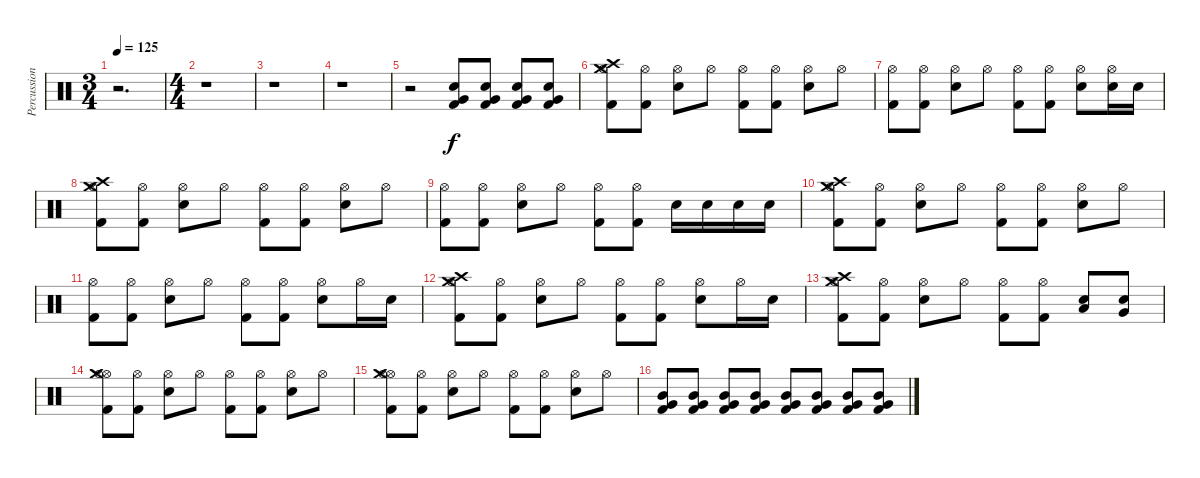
\track ("Percussions" "Percussion") {instrument percussion}
\staff {score}
\articulation defaults
\ts (3 4)
\tempo 125
\clef neutral
\ks c
r.2{d dy f} |
\ts (4 4)
r.1 |
r.1 |
r.1 |
r.2 ("Very Low Tom (hit)" "Electric Snare (hit)" "Kick (hit) 2").8 ("Very Low Tom (hit)" "Electric Snare (hit)" "Kick (hit) 2").8 ("Very Low Tom (hit)" "Electric Snare (hit)" "Kick (hit) 2").8 ("Very Low Tom (hit)" "Electric Snare (hit)" "Kick (hit) 2").8 |
("Hi-Hat (open)" "Crash high (hit)" "Crash medium (hit)" "Kick (hit) 2").8 ("Hi-Hat (open)" "Kick (hit) 2").8 ("Hi-Hat (open)" "Electric Snare (hit)").8 "Hi-Hat (open)".8 ("Hi-Hat (open)" "Kick (hit) 2").8 ("Hi-Hat (open)" "Kick (hit) 2").8 ("Hi-Hat (open)" "Electric Snare (hit)").8 "Hi-Hat (open)".8 |
("Hi-Hat (open)" "Kick (hit) 2").8 ("Hi-Hat (open)" "Kick (hit) 2").8 ("Hi-Hat (open)" "Electric Snare (hit)").8 "Hi-Hat (open)".8 ("Hi-Hat (open)" "Kick (hit) 2").8 ("Hi-Hat (open)" "Kick (hit) 2").8 ("Hi-Hat (open)" "Electric Snare (hit)").8 ("Hi-Hat (open)" "Electric Snare (hit)").16 "Electric Snare (hit)".16 |
("Hi-Hat (open)" "Crash high (hit)" "Crash medium (hit)" "Kick (hit) 2").8 ("Hi-Hat (open)" "Kick (hit) 2").8 ("Hi-Hat (open)" "Electric Snare (hit)").8 "Hi-Hat (open)".8 ("Hi-Hat (open)" "Kick (hit) 2").8 ("Hi-Hat (open)" "Kick (hit) 2").8 ("Hi-Hat (open)" "Electric Snare (hit)").8 "Hi-Hat (open)".8 |
("Hi-Hat (open)" "Kick (hit) 2").8 ("Hi-Hat (open)" "Kick (hit) 2").8 ("Hi-Hat (open)" "Electric Snare (hit)").8 "Hi-Hat (open)".8 ("Hi-Hat (open)" "Kick (hit) 2").8 ("Hi-Hat (open)" "Kick (hit) 2").8 "Electric Snare (hit)".16 "Electric Snare (hit)".16 "Electric Snare (hit)".16 "Electric Snare (hit)".16 |
("Hi-Hat (open)" "Crash high (hit)" "Crash medium (hit)" "Kick (hit) 2").8 ("Hi-Hat (open)" "Kick (hit) 2").8 ("Hi-Hat (open)" "Electric Snare (hit)").8 "Hi-Hat (open)".8 ("Hi-Hat (open)" "Kick (hit) 2").8 ("Hi-Hat (open)" "Kick (hit) 2").8 ("Hi-Hat (open)" "Electric Snare (hit)").8 "Hi-Hat (open)".8 |
("Hi-Hat (open)" "Kick (hit) 2").8 ("Hi-Hat (open)" "Kick (hit) 2").8 ("Hi-Hat (open)" "Electric Snare (hit)").8 "Hi-Hat (open)".8 ("Hi-Hat (open)" "Kick (hit) 2").8 ("Hi-Hat (open)" "Kick (hit) 2").8 ("Hi-Hat (open)" "Electric Snare (hit)").8 "Hi-Hat (open)".16 "Electric Snare (hit)".16 |
("Hi-Hat (open)" "Crash high (hit)" "Crash medium (hit)" "Kick (hit) 2").8 ("Hi-Hat (open)" "Kick (hit) 2").8 ("Hi-Hat (open)" "Electric Snare (hit)").8 "Hi-Hat (open)".8 ("Hi-Hat (open)" "Kick (hit) 2").8 ("Hi-Hat (open)" "Kick (hit) 2").8 ("Hi-Hat (open)" "Electric Snare (hit)").8 "Hi-Hat (open)".16 "Electric Snare (hit)".16 |
("Hi-Hat (open)" "Crash high (hit)" "Crash medium (hit)" "Kick (hit) 2").8 ("Hi-Hat (open)" "Kick (hit) 2").8 ("Hi-Hat (open)" "Electric Snare (hit)").8 "Hi-Hat (open)".8 ("Hi-Hat (open)" "Kick (hit) 2").8 ("Hi-Hat (open)" "Kick (hit) 2").8 ("Low Tom (hit)" "Electric Snare (hit)").8 ("Very Low Tom (hit)" "Electric Snare (hit)").8 |
("Hi-Hat (open)" "Hi-Hat (open)" "Crash medium (hit)" "Kick (hit) 2").8 ("Hi-Hat (open)" "Kick (hit) 2").8 ("Hi-Hat (open)" "Electric Snare (hit)").8 "Hi-Hat (open)".8 ("Hi-Hat (open)" "Kick (hit) 2").8 ("Hi-Hat (open)" "Kick (hit) 2").8 ("Hi-Hat (open)" "Electric Snare (hit)").8 "Hi-Hat (open)".8 |
("Hi-Hat (open)" "Hi-Hat (open)" "Crash medium (hit)" "Kick (hit) 2").8 ("Hi-Hat (open)" "Kick (hit) 2").8 ("Hi-Hat (open)" "Electric Snare (hit)").8 "Hi-Hat (open)".8 ("Hi-Hat (open)" "Kick (hit) 2").8 ("Hi-Hat (open)" "Kick (hit) 2").8 ("Hi-Hat (open)" "Electric Snare (hit)").8 "Hi-Hat (open)".8 |
("Very Low Tom (hit)" "Mid Tom (hit)" "Kick (hit) 2").8 ("Very Low Tom (hit)" "Mid Tom (hit)" "Kick (hit) 2").8 ("Very Low Tom (hit)" "Mid Tom (hit)" "Kick (hit) 2").8 ("Very Low Tom (hit)" "Mid Tom (hit)" "Kick (hit) 2").8 ("Very Low Tom (hit)" "Mid Tom (hit)" "Kick (hit) 2").8 ("Very Low Tom (hit)" "Mid Tom (hit)" "Kick (hit) 2").8 ("Very Low Tom (hit)" "Mid Tom (hit)" "Kick (hit) 2").8 ("Very Low Tom (hit)" "Mid Tom (hit)" "Kick (hit) 2").8
